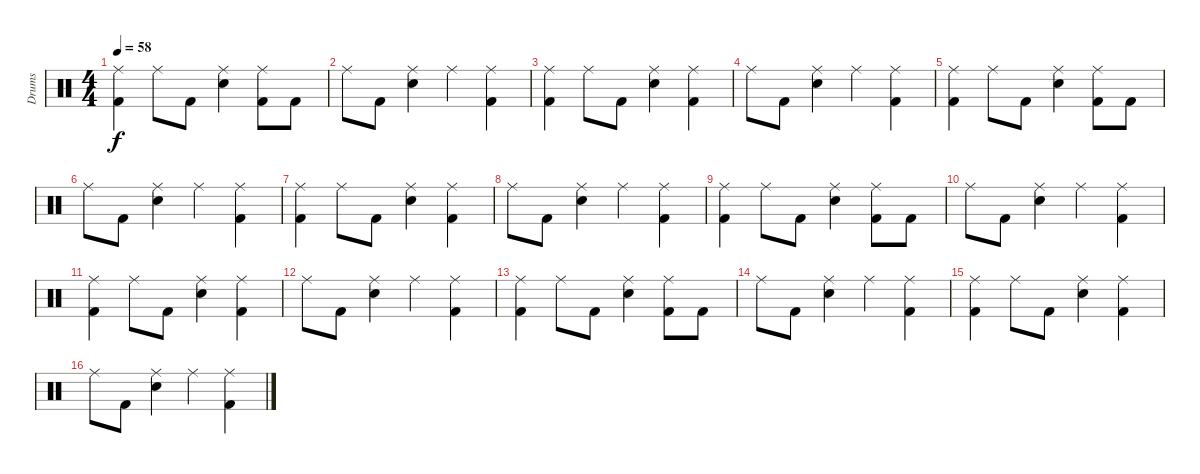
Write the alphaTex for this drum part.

\track ("Drums" "Drums") {instrument percussion}
\staff {score}
\articulation defaults
\ts (4 4)
\tempo 58
\clef neutral
\ks c
("Ride (middle)" "Kick (hit) 2").4{dy f} "Ride (middle)".8 "Kick (hit) 2".8 ("Ride (middle)" "Electric Snare (hit)").4 ("Ride (middle)" "Kick (hit) 2").8 "Kick (hit) 2".8 |
"Ride (middle)".8 "Kick (hit) 2".8 ("Ride (middle)" "Electric Snare (hit)").4 "Ride (middle)".4 ("Ride (middle)" "Kick (hit) 2").4 |
("Ride (middle)" "Kick (hit) 2").4 "Ride (middle)".8 "Kick (hit) 2".8 ("Ride (middle)" "Electric Snare (hit)").4 ("Ride (middle)" "Kick (hit) 2").4 |
"Ride (middle)".8 "Kick (hit) 2".8 ("Ride (middle)" "Electric Snare (hit)").4 "Ride (middle)".4 ("Ride (middle)" "Kick (hit) 2").4 |
("Ride (middle)" "Kick (hit) 2").4 "Ride (middle)".8 "Kick (hit) 2".8 ("Ride (middle)" "Electric Snare (hit)").4 ("Ride (middle)" "Kick (hit) 2").8 "Kick (hit) 2".8 |
"Ride (middle)".8 "Kick (hit) 2".8 ("Ride (middle)" "Electric Snare (hit)").4 "Ride (middle)".4 ("Ride (middle)" "Kick (hit) 2").4 |
("Ride (middle)" "Kick (hit) 2").4 "Ride (middle)".8 "Kick (hit) 2".8 ("Ride (middle)" "Electric Snare (hit)").4 ("Ride (middle)" "Kick (hit) 2").4 |
"Ride (middle)".8 "Kick (hit) 2".8 ("Ride (middle)" "Electric Snare (hit)").4 "Ride (middle)".4 ("Ride (middle)" "Kick (hit) 2").4 |
("Ride (middle)" "Kick (hit) 2").4 "Ride (middle)".8 "Kick (hit) 2".8 ("Ride (middle)" "Electric Snare (hit)").4 ("Ride (middle)" "Kick (hit) 2").8 "Kick (hit) 2".8 |
"Ride (middle)".8 "Kick (hit) 2".8 ("Ride (middle)" "Electric Snare (hit)").4 "Ride (middle)".4 ("Ride (middle)" "Kick (hit) 2").4 |
("Ride (middle)" "Kick (hit) 2").4 "Ride (middle)".8 "Kick (hit) 2".8 ("Ride (middle)" "Electric Snare (hit)").4 ("Ride (middle)" "Kick (hit) 2").4 |
"Ride (middle)".8 "Kick (hit) 2".8 ("Ride (middle)" "Electric Snare (hit)").4 "Ride (middle)".4 ("Ride (middle)" "Kick (hit) 2").4 |
("Ride (middle)" "Kick (hit) 2").4 "Ride (middle)".8 "Kick (hit) 2".8 ("Ride (middle)" "Electric Snare (hit)").4 ("Ride (middle)" "Kick (hit) 2").8 "Kick (hit) 2".8 |
"Ride (middle)".8 "Kick (hit) 2".8 ("Ride (middle)" "Electric Snare (hit)").4 "Ride (middle)".4 ("Ride (middle)" "Kick (hit) 2").4 |
("Ride (middle)" "Kick (hit) 2").4 "Ride (middle)".8 "Kick (hit) 2".8 ("Ride (middle)" "Electric Snare (hit)").4 ("Ride (middle)" "Kick (hit) 2").4 |
"Ride (middle)".8 "Kick (hit) 2".8 ("Ride (middle)" "Electric Snare (hit)").4 "Ride (middle)".4 ("Ride (middle)" "Kick (hit) 2").4
